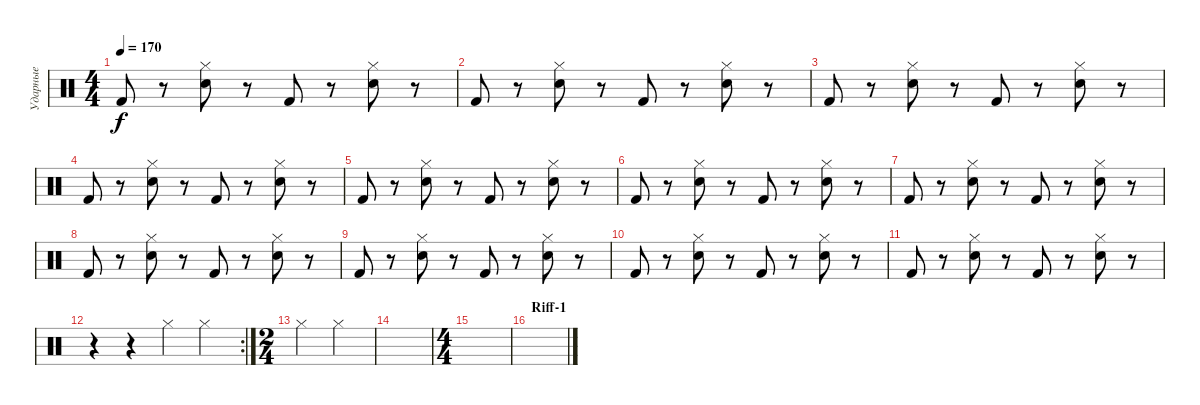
\track ("Ударные" "Ударные") {instrument percussion}
\staff {score}
\articulation defaults
\ts (4 4)
\tempo 170
\clef neutral
\ks c "Kick (hit) 2".8{dy f}
r.8 ("Hi-Hat (closed)" "Electric Snare (hit)").8 r.8 "Kick (hit) 2".8 r.8 ("Hi-Hat (closed)" "Electric Snare (hit)").8 r.8 |
"Kick (hit) 2".8 r.8 ("Hi-Hat (closed)" "Electric Snare (hit)").8 r.8 "Kick (hit) 2".8 r.8 ("Hi-Hat (closed)" "Electric Snare (hit)").8 r.8 |
"Kick (hit) 2".8 r.8 ("Hi-Hat (closed)" "Electric Snare (hit)").8 r.8 "Kick (hit) 2".8 r.8 ("Hi-Hat (closed)" "Electric Snare (hit)").8 r.8 |
"Kick (hit) 2".8 r.8 ("Hi-Hat (closed)" "Electric Snare (hit)").8 r.8 "Kick (hit) 2".8 r.8 ("Hi-Hat (closed)" "Electric Snare (hit)").8 r.8 |
"Kick (hit) 2".8 r.8 ("Hi-Hat (closed)" "Electric Snare (hit)").8 r.8 "Kick (hit) 2".8 r.8 ("Hi-Hat (closed)" "Electric Snare (hit)").8 r.8 |
"Kick (hit) 2".8 r.8 ("Hi-Hat (closed)" "Electric Snare (hit)").8 r.8 "Kick (hit) 2".8 r.8 ("Hi-Hat (closed)" "Electric Snare (hit)").8 r.8 |
"Kick (hit) 2".8 r.8 ("Hi-Hat (closed)" "Electric Snare (hit)").8 r.8 "Kick (hit) 2".8 r.8 ("Hi-Hat (closed)" "Electric Snare (hit)").8 r.8 |
"Kick (hit) 2".8 r.8 ("Hi-Hat (closed)" "Electric Snare (hit)").8 r.8 "Kick (hit) 2".8 r.8 ("Hi-Hat (closed)" "Electric Snare (hit)").8 r.8 |
"Kick (hit) 2".8 r.8 ("Hi-Hat (closed)" "Electric Snare (hit)").8 r.8 "Kick (hit) 2".8 r.8 ("Hi-Hat (closed)" "Electric Snare (hit)").8 r.8 |
"Kick (hit) 2".8 r.8 ("Hi-Hat (closed)" "Electric Snare (hit)").8 r.8 "Kick (hit) 2".8 r.8 ("Hi-Hat (closed)" "Electric Snare (hit)").8 r.8 |
"Kick (hit) 2".8 r.8 ("Hi-Hat (closed)" "Electric Snare (hit)").8 r.8 "Kick (hit) 2".8 r.8 ("Hi-Hat (closed)" "Electric Snare (hit)").8 r.8 |
\rc 2
r.4 r.4 "Hi-Hat (closed)".4 "Hi-Hat (closed)".4 |
\ts (2 4)
"Hi-Hat (closed)".4 "Hi-Hat (closed)".4 |
|
\ts (4 4)
|
\section ("" "Riff-1")
